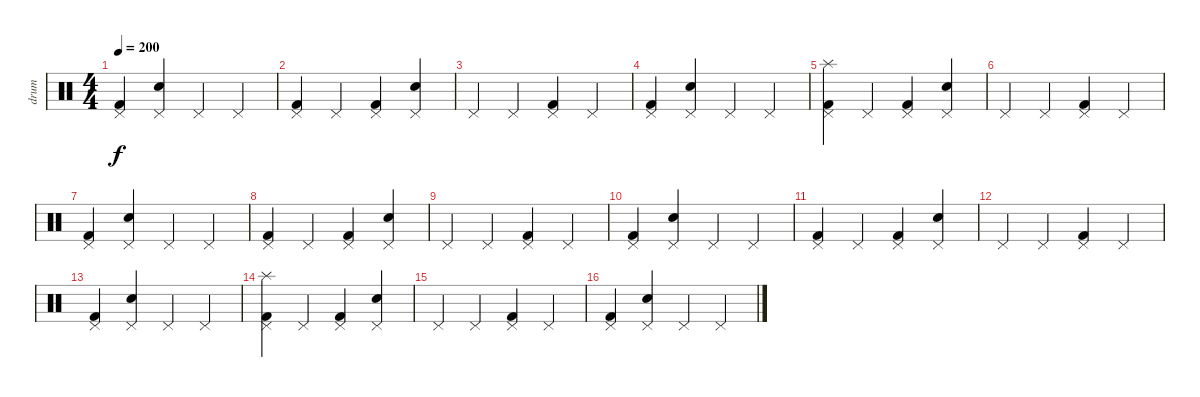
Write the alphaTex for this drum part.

\track ("drum" "drum") {instrument percussion}
\staff {score}
\articulation defaults
\ts (4 4)
\tempo 200
\clef neutral
\ks c
("Pedal Hi-Hat (hit)" "Kick (hit) 2").4{dy f} ("Pedal Hi-Hat (hit)" "Electric Snare (hit)").4 "Pedal Hi-Hat (hit)".4 "Pedal Hi-Hat (hit)".4 |
("Pedal Hi-Hat (hit)" "Kick (hit) 2").4 "Pedal Hi-Hat (hit)".4 ("Pedal Hi-Hat (hit)" "Kick (hit) 2").4 ("Pedal Hi-Hat (hit)" "Electric Snare (hit)").4 |
"Pedal Hi-Hat (hit)".4 "Pedal Hi-Hat (hit)".4 ("Pedal Hi-Hat (hit)" "Kick (hit) 2").4 "Pedal Hi-Hat (hit)".4 |
("Pedal Hi-Hat (hit)" "Kick (hit) 2").4 ("Pedal Hi-Hat (hit)" "Electric Snare (hit)").4 "Pedal Hi-Hat (hit)".4 "Pedal Hi-Hat (hit)".4 |
("Pedal Hi-Hat (hit)" "Splash (hit)" "Kick (hit) 2").4 "Pedal Hi-Hat (hit)".4 ("Pedal Hi-Hat (hit)" "Kick (hit) 2").4 ("Pedal Hi-Hat (hit)" "Electric Snare (hit)").4 |
"Pedal Hi-Hat (hit)".4 "Pedal Hi-Hat (hit)".4 ("Pedal Hi-Hat (hit)" "Kick (hit) 2").4 "Pedal Hi-Hat (hit)".4 |
("Pedal Hi-Hat (hit)" "Kick (hit) 2").4 ("Pedal Hi-Hat (hit)" "Electric Snare (hit)").4 "Pedal Hi-Hat (hit)".4 "Pedal Hi-Hat (hit)".4 |
("Pedal Hi-Hat (hit)" "Kick (hit) 2").4 "Pedal Hi-Hat (hit)".4 ("Pedal Hi-Hat (hit)" "Kick (hit) 2").4 ("Pedal Hi-Hat (hit)" "Electric Snare (hit)").4 |
"Pedal Hi-Hat (hit)".4 "Pedal Hi-Hat (hit)".4 ("Pedal Hi-Hat (hit)" "Kick (hit) 2").4 "Pedal Hi-Hat (hit)".4 |
("Pedal Hi-Hat (hit)" "Kick (hit) 2").4 ("Pedal Hi-Hat (hit)" "Electric Snare (hit)").4 "Pedal Hi-Hat (hit)".4 "Pedal Hi-Hat (hit)".4 |
("Pedal Hi-Hat (hit)" "Kick (hit) 2").4 "Pedal Hi-Hat (hit)".4 ("Pedal Hi-Hat (hit)" "Kick (hit) 2").4 ("Pedal Hi-Hat (hit)" "Electric Snare (hit)").4 |
"Pedal Hi-Hat (hit)".4 "Pedal Hi-Hat (hit)".4 ("Pedal Hi-Hat (hit)" "Kick (hit) 2").4 "Pedal Hi-Hat (hit)".4 |
("Pedal Hi-Hat (hit)" "Kick (hit) 2").4 ("Pedal Hi-Hat (hit)" "Electric Snare (hit)").4 "Pedal Hi-Hat (hit)".4 "Pedal Hi-Hat (hit)".4 |
("Pedal Hi-Hat (hit)" "Splash (hit)" "Kick (hit) 2").4 "Pedal Hi-Hat (hit)".4 ("Pedal Hi-Hat (hit)" "Kick (hit) 2").4 ("Pedal Hi-Hat (hit)" "Electric Snare (hit)").4 |
"Pedal Hi-Hat (hit)".4 "Pedal Hi-Hat (hit)".4 ("Pedal Hi-Hat (hit)" "Kick (hit) 2").4 "Pedal Hi-Hat (hit)".4 |
("Pedal Hi-Hat (hit)" "Kick (hit) 2").4 ("Pedal Hi-Hat (hit)" "Electric Snare (hit)").4 "Pedal Hi-Hat (hit)".4 "Pedal Hi-Hat (hit)".4
